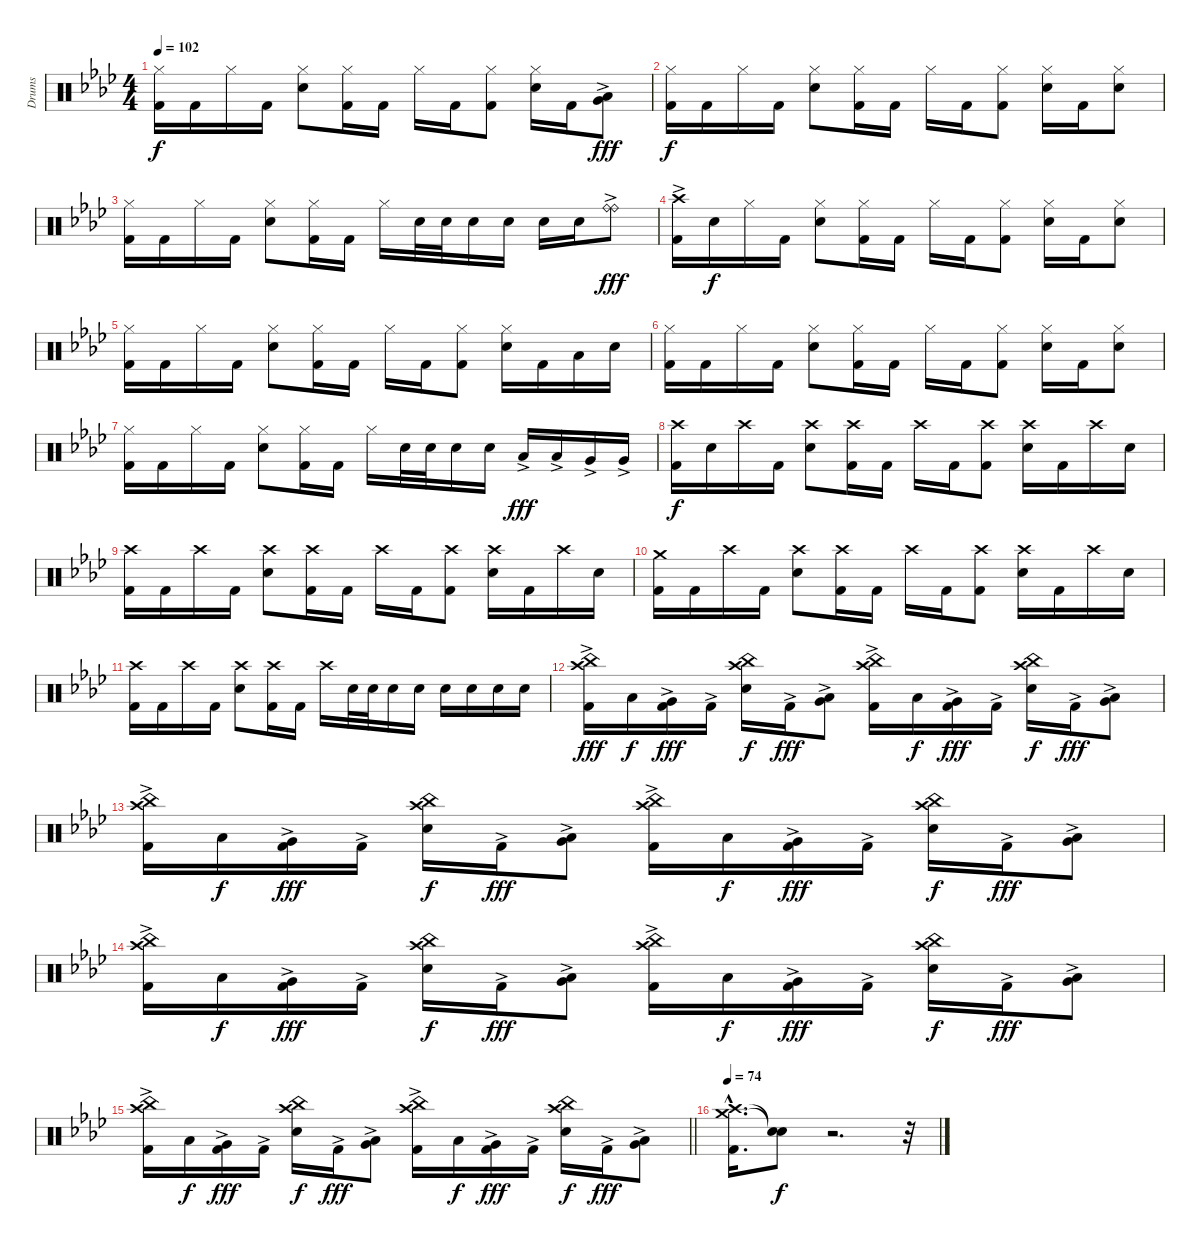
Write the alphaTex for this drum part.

\track ("Drums" "Drums") {instrument percussion}
\staff {score}
\articulation defaults
\ts (4 4)
\tempo 102
\clef neutral
\ks fminor
("Hi-Hat (closed)" "Kick (hit) 2").16{dy f} "Kick (hit) 2".16 "Hi-Hat (closed)".16 "Kick (hit) 2".16 ("Hi-Hat (closed)" "Snare (hit) 2").8 ("Hi-Hat (closed)" "Kick (hit) 2").16 "Kick (hit) 2".16 "Hi-Hat (closed)".16 "Kick (hit) 2".16 ("Hi-Hat (closed)" "Kick (hit) 2").8 ("Hi-Hat (closed)" "Snare (hit) 2").16 "Kick (hit) 2".16 ("Low Tom (hit)" "Very Low Tom (hit)"{ac}).8{dy fff} |
("Hi-Hat (closed)" "Kick (hit) 2").16{dy f} "Kick (hit) 2".16 "Hi-Hat (closed)".16 "Kick (hit) 2".16 ("Hi-Hat (closed)" "Snare (hit) 2").8 ("Hi-Hat (closed)" "Kick (hit) 2").16 "Kick (hit) 2".16 "Hi-Hat (closed)".16 "Kick (hit) 2".16 ("Hi-Hat (closed)" "Kick (hit) 2").8 ("Hi-Hat (closed)" "Snare (hit) 2").16 "Kick (hit) 2".16 ("Hi-Hat (closed)" "Snare (hit) 2").8 |
("Hi-Hat (closed)" "Kick (hit) 2").16 "Kick (hit) 2".16 "Hi-Hat (closed)".16 "Kick (hit) 2".16 ("Hi-Hat (closed)" "Snare (hit) 2").8 ("Hi-Hat (closed)" "Kick (hit) 2").16 "Kick (hit) 2".16 "Hi-Hat (closed)".16 "Snare (hit) 2".32 "Snare (hit) 2".32 "Snare (hit) 2".16 "Snare (hit) 2".16 "Snare (hit) 2".16 "Snare (hit) 2".16 ("Ride (bell)"{ac} "Ride (bell)"{ac}).8{dy fff} |
("Crash high (hit)" "Kick (hit) 2"{ac}).16 "Snare (hit) 2".16{dy f} "Hi-Hat (closed)".16 "Kick (hit) 2".16 ("Hi-Hat (closed)" "Snare (hit) 2").8 ("Hi-Hat (closed)" "Kick (hit) 2").16 "Kick (hit) 2".16 "Hi-Hat (closed)".16 "Kick (hit) 2".16 ("Hi-Hat (closed)" "Kick (hit) 2").8 ("Hi-Hat (closed)" "Snare (hit) 2").16 "Kick (hit) 2".16 ("Hi-Hat (closed)" "Snare (hit) 2").8 |
("Hi-Hat (closed)" "Kick (hit) 2").16 "Kick (hit) 2".16 "Hi-Hat (closed)".16 "Kick (hit) 2".16 ("Hi-Hat (closed)" "Snare (hit) 2").8 ("Hi-Hat (closed)" "Kick (hit) 2").16 "Kick (hit) 2".16 "Hi-Hat (closed)".16 "Kick (hit) 2".16 ("Hi-Hat (closed)" "Kick (hit) 2").8 ("Hi-Hat (closed)" "Snare (hit) 2").16 "Kick (hit) 2".16 "Low Tom (hit)".16 "Snare (hit) 2".16 |
("Hi-Hat (closed)" "Kick (hit) 2").16 "Kick (hit) 2".16 "Hi-Hat (closed)".16 "Kick (hit) 2".16 ("Hi-Hat (closed)" "Snare (hit) 2").8 ("Hi-Hat (closed)" "Kick (hit) 2").16 "Kick (hit) 2".16 "Hi-Hat (closed)".16 "Kick (hit) 2".16 ("Hi-Hat (closed)" "Kick (hit) 2").8 ("Hi-Hat (closed)" "Snare (hit) 2").16 "Kick (hit) 2".16 ("Hi-Hat (closed)" "Snare (hit) 2").8 |
("Hi-Hat (closed)" "Kick (hit) 2").16 "Kick (hit) 2".16 "Hi-Hat (closed)".16 "Kick (hit) 2".16 ("Hi-Hat (closed)" "Snare (hit) 2").8 ("Hi-Hat (closed)" "Kick (hit) 2").16 "Kick (hit) 2".16 "Hi-Hat (closed)".16 "Snare (hit) 2".32 "Snare (hit) 2".32 "Snare (hit) 2".16 "Snare (hit) 2".16 "Low Tom (hit)"{ac}.16{dy fff} "Low Tom (hit)"{ac}.16 "Very Low Tom (hit)"{ac}.16 "Very Low Tom (hit)"{ac}.16 |
("Crash high (hit)" "Kick (hit) 2").16{dy f} "Snare (hit) 2".16 "Crash high (hit)".16 "Kick (hit) 2".16 ("Crash high (hit)" "Snare (hit) 2").8 ("Crash high (hit)" "Kick (hit) 2").16 "Kick (hit) 2".16 "Crash high (hit)".16 "Kick (hit) 2".16 ("Crash high (hit)" "Kick (hit) 2").8 ("Crash high (hit)" "Snare (hit) 2").16 "Kick (hit) 2".16 "Crash high (hit)".16 "Snare (hit) 2".16 |
("Crash high (hit)" "Kick (hit) 2").16 "Kick (hit) 2".16 "Crash high (hit)".16 "Kick (hit) 2".16 ("Crash high (hit)" "Snare (hit) 2").8 ("Crash high (hit)" "Kick (hit) 2").16 "Kick (hit) 2".16 "Crash high (hit)".16 "Kick (hit) 2".16 ("Crash high (hit)" "Kick (hit) 2").8 ("Crash high (hit)" "Snare (hit) 2").16 "Kick (hit) 2".16 "Crash high (hit)".16 "Snare (hit) 2".16 |
("Crash medium (hit)" "Kick (hit) 2").16 "Kick (hit) 2".16 "Crash high (hit)".16 "Kick (hit) 2".16 ("Crash high (hit)" "Snare (hit) 2").8 ("Crash high (hit)" "Kick (hit) 2").16 "Kick (hit) 2".16 "Crash high (hit)".16 "Kick (hit) 2".16 ("Crash high (hit)" "Kick (hit) 2").8 ("Crash high (hit)" "Snare (hit) 2").16 "Kick (hit) 2".16 "Crash high (hit)".16 "Snare (hit) 2".16 |
("Crash high (hit)" "Kick (hit) 2").16 "Kick (hit) 2".16 "Crash high (hit)".16 "Kick (hit) 2".16 ("Crash high (hit)" "Snare (hit) 2").8 ("Crash high (hit)" "Kick (hit) 2").16 "Kick (hit) 2".16 "Crash high (hit)".16 "Snare (hit) 2".32 "Snare (hit) 2".32 "Snare (hit) 2".16 "Snare (hit) 2".16 "Snare (hit) 2".16 "Snare (hit) 2".16 "Snare (hit) 2".16 "Snare (hit) 2".16 |
("Crash high (hit)" "China (hit)" "Kick (hit) 2"{ac}).16{dy fff} "Low Tom (hit)".16{dy f} ("Very Low Tom (hit)" "Kick (hit) 2"{ac}).16{dy fff} "Kick (hit) 2"{ac}.16 ("Crash high (hit)" "China (hit)" "Snare (hit) 2").16{dy f} "Kick (hit) 2"{ac}.16{dy fff} ("Low Tom (hit)" "Very Low Tom (hit)"{ac}).8 ("Crash high (hit)" "China (hit)" "Kick (hit) 2"{ac}).16 "Low Tom (hit)".16{dy f} ("Very Low Tom (hit)" "Kick (hit) 2"{ac}).16{dy fff} "Kick (hit) 2"{ac}.16 ("Crash high (hit)" "China (hit)" "Snare (hit) 2").16{dy f} "Kick (hit) 2"{ac}.16{dy fff} ("Low Tom (hit)" "Very Low Tom (hit)"{ac}).8 |
("Crash high (hit)" "China (hit)" "Kick (hit) 2"{ac}).16 "Low Tom (hit)".16{dy f} ("Very Low Tom (hit)" "Kick (hit) 2"{ac}).16{dy fff} "Kick (hit) 2"{ac}.16 ("Crash high (hit)" "China (hit)" "Snare (hit) 2").16{dy f} "Kick (hit) 2"{ac}.16{dy fff} ("Low Tom (hit)" "Very Low Tom (hit)"{ac}).8 ("Crash high (hit)" "China (hit)" "Kick (hit) 2"{ac}).16 "Low Tom (hit)".16{dy f} ("Very Low Tom (hit)" "Kick (hit) 2"{ac}).16{dy fff} "Kick (hit) 2"{ac}.16 ("Crash high (hit)" "China (hit)" "Snare (hit) 2").16{dy f} "Kick (hit) 2"{ac}.16{dy fff} ("Low Tom (hit)" "Very Low Tom (hit)"{ac}).8 |
("Crash high (hit)" "China (hit)" "Kick (hit) 2"{ac}).16 "Low Tom (hit)".16{dy f} ("Very Low Tom (hit)" "Kick (hit) 2"{ac}).16{dy fff} "Kick (hit) 2"{ac}.16 ("Crash high (hit)" "China (hit)" "Snare (hit) 2").16{dy f} "Kick (hit) 2"{ac}.16{dy fff} ("Low Tom (hit)" "Very Low Tom (hit)"{ac}).8 ("Crash high (hit)" "China (hit)" "Kick (hit) 2"{ac}).16 "Low Tom (hit)".16{dy f} ("Very Low Tom (hit)" "Kick (hit) 2"{ac}).16{dy fff} "Kick (hit) 2"{ac}.16 ("Crash high (hit)" "China (hit)" "Snare (hit) 2").16{dy f} "Kick (hit) 2"{ac}.16{dy fff} ("Low Tom (hit)" "Very Low Tom (hit)"{ac}).8 |
\barLineRight lightlight
("Crash high (hit)" "China (hit)" "Kick (hit) 2"{ac}).16 "Low Tom (hit)".16{dy f} ("Very Low Tom (hit)" "Kick (hit) 2"{ac}).16{dy fff} "Kick (hit) 2"{ac}.16 ("Crash high (hit)" "China (hit)" "Snare (hit) 2").16{dy f} "Kick (hit) 2"{ac}.16{dy fff} ("Low Tom (hit)" "Very Low Tom (hit)"{ac}).8 ("Crash high (hit)" "China (hit)" "Kick (hit) 2"{ac}).16 "Low Tom (hit)".16{dy f} ("Very Low Tom (hit)" "Kick (hit) 2"{ac}).16{dy fff} "Kick (hit) 2"{ac}.16 ("Crash high (hit)" "China (hit)" "Snare (hit) 2").16{dy f} "Kick (hit) 2"{ac}.16{dy fff} ("Low Tom (hit)"{ac} "Very Low Tom (hit)"{ac}).8 |
\tempo 74
("Crash high (hit)"{hac} "Crash medium (hit)"{hac} "Kick (hit) 2"{hac}).16{d} ("Snare (hit)"{t} "Snare (hit)"{t}).8{dy f volume 0} r.2{d} r.32{volume 16}
